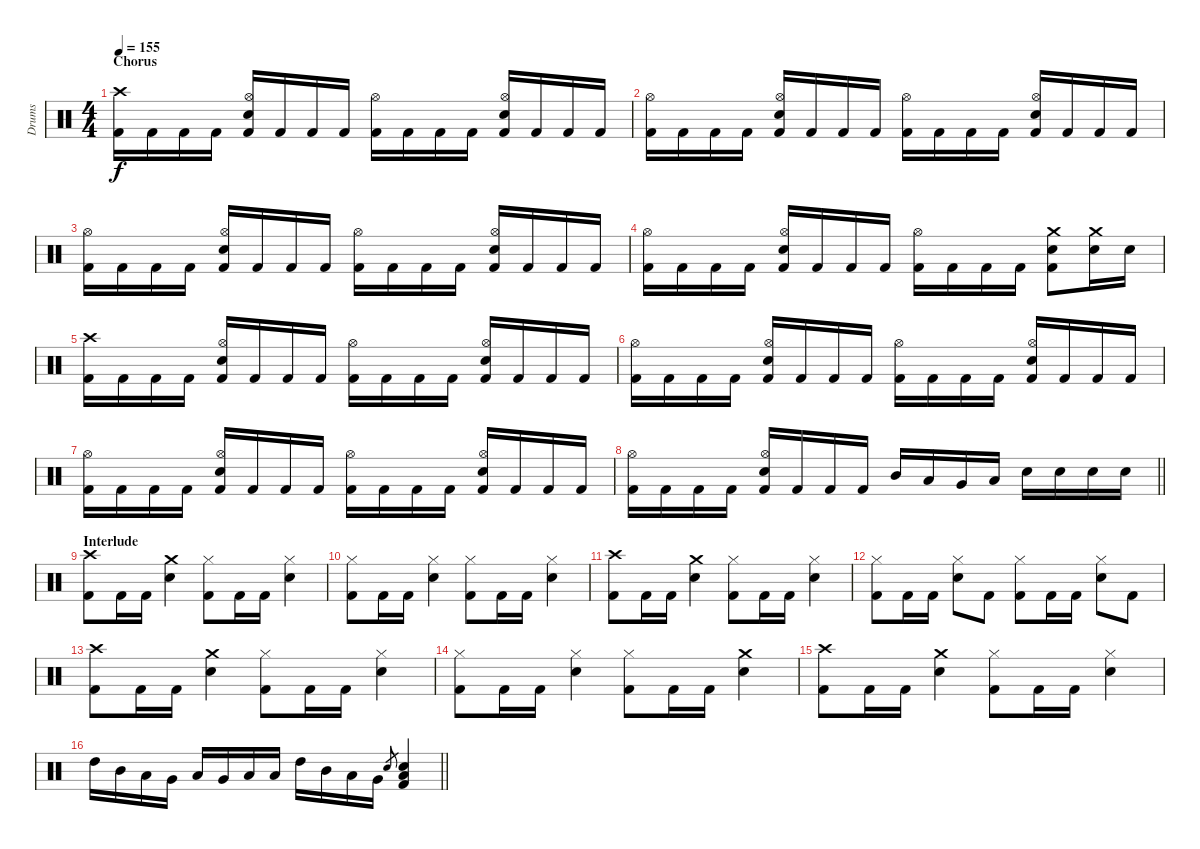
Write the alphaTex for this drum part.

\track ("Drums" "Drums") {instrument percussion}
\staff {score}
\articulation defaults
\ts (4 4)
\section ("" "Chorus")
\tempo 155
\clef neutral
\ks c
("Crash high (hit)" "Kick (hit) 2").16{dy f} "Kick (hit) 2".16 "Kick (hit) 2".16 "Kick (hit) 2".16 ("Hi-Hat (open)" "Snare (hit) 2" "Kick (hit) 2").16 "Kick (hit) 2".16 "Kick (hit) 2".16 "Kick (hit) 2".16 ("Hi-Hat (open)" "Kick (hit) 2").16 "Kick (hit) 2".16 "Kick (hit) 2".16 "Kick (hit) 2".16 ("Hi-Hat (open)" "Snare (hit) 2" "Kick (hit) 2").16 "Kick (hit) 2".16 "Kick (hit) 2".16 "Kick (hit) 2".16 |
("Hi-Hat (open)" "Kick (hit) 2").16 "Kick (hit) 2".16 "Kick (hit) 2".16 "Kick (hit) 2".16 ("Hi-Hat (open)" "Snare (hit) 2" "Kick (hit) 2").16 "Kick (hit) 2".16 "Kick (hit) 2".16 "Kick (hit) 2".16 ("Hi-Hat (open)" "Kick (hit) 2").16 "Kick (hit) 2".16 "Kick (hit) 2".16 "Kick (hit) 2".16 ("Hi-Hat (open)" "Snare (hit) 2" "Kick (hit) 2").16 "Kick (hit) 2".16 "Kick (hit) 2".16 "Kick (hit) 2".16 |
("Hi-Hat (open)" "Kick (hit) 2").16 "Kick (hit) 2".16 "Kick (hit) 2".16 "Kick (hit) 2".16 ("Hi-Hat (open)" "Snare (hit) 2" "Kick (hit) 2").16 "Kick (hit) 2".16 "Kick (hit) 2".16 "Kick (hit) 2".16 ("Hi-Hat (open)" "Kick (hit) 2").16 "Kick (hit) 2".16 "Kick (hit) 2".16 "Kick (hit) 2".16 ("Hi-Hat (open)" "Snare (hit) 2" "Kick (hit) 2").16 "Kick (hit) 2".16 "Kick (hit) 2".16 "Kick (hit) 2".16 |
("Hi-Hat (open)" "Kick (hit) 2").16 "Kick (hit) 2".16 "Kick (hit) 2".16 "Kick (hit) 2".16 ("Hi-Hat (open)" "Snare (hit) 2" "Kick (hit) 2").16 "Kick (hit) 2".16 "Kick (hit) 2".16 "Kick (hit) 2".16 ("Hi-Hat (open)" "Kick (hit) 2").16 "Kick (hit) 2".16 "Kick (hit) 2".16 "Kick (hit) 2".16 ("Crash medium (hit)" "Snare (hit) 2" "Kick (hit) 2").8 ("Crash medium (hit)" "Snare (hit) 2").16 "Snare (hit) 2".16 |
("Crash high (hit)" "Kick (hit) 2").16 "Kick (hit) 2".16 "Kick (hit) 2".16 "Kick (hit) 2".16 ("Hi-Hat (open)" "Snare (hit) 2" "Kick (hit) 2").16 "Kick (hit) 2".16 "Kick (hit) 2".16 "Kick (hit) 2".16 ("Hi-Hat (open)" "Kick (hit) 2").16 "Kick (hit) 2".16 "Kick (hit) 2".16 "Kick (hit) 2".16 ("Hi-Hat (open)" "Snare (hit) 2" "Kick (hit) 2").16 "Kick (hit) 2".16 "Kick (hit) 2".16 "Kick (hit) 2".16 |
("Hi-Hat (open)" "Kick (hit) 2").16 "Kick (hit) 2".16 "Kick (hit) 2".16 "Kick (hit) 2".16 ("Hi-Hat (open)" "Snare (hit) 2" "Kick (hit) 2").16 "Kick (hit) 2".16 "Kick (hit) 2".16 "Kick (hit) 2".16 ("Hi-Hat (open)" "Kick (hit) 2").16 "Kick (hit) 2".16 "Kick (hit) 2".16 "Kick (hit) 2".16 ("Hi-Hat (open)" "Snare (hit) 2" "Kick (hit) 2").16 "Kick (hit) 2".16 "Kick (hit) 2".16 "Kick (hit) 2".16 |
("Hi-Hat (open)" "Kick (hit) 2").16 "Kick (hit) 2".16 "Kick (hit) 2".16 "Kick (hit) 2".16 ("Hi-Hat (open)" "Snare (hit) 2" "Kick (hit) 2").16 "Kick (hit) 2".16 "Kick (hit) 2".16 "Kick (hit) 2".16 ("Hi-Hat (open)" "Kick (hit) 2").16 "Kick (hit) 2".16 "Kick (hit) 2".16 "Kick (hit) 2".16 ("Hi-Hat (open)" "Snare (hit) 2" "Kick (hit) 2").16 "Kick (hit) 2".16 "Kick (hit) 2".16 "Kick (hit) 2".16 |
\barLineRight lightlight
("Hi-Hat (open)" "Kick (hit) 2").16 "Kick (hit) 2".16 "Kick (hit) 2".16 "Kick (hit) 2".16 ("Hi-Hat (open)" "Snare (hit) 2" "Kick (hit) 2").16 "Kick (hit) 2".16 "Kick (hit) 2".16 "Kick (hit) 2".16 "Mid Tom (hit)".16 "Low Tom (hit)".16 "Very Low Tom (hit)".16 "Low Floor Tom (hit)".16 "Snare (hit) 2".16 "Snare (hit) 2".16 "Snare (hit) 2".16 "Snare (hit) 2".16 |
\section ("" "Interlude")
("Crash high (hit)" "Kick (hit) 2").8 "Kick (hit) 2".16 "Kick (hit) 2".16 ("Crash medium (hit)" "Snare (hit) 2").4 ("Hi-Hat (closed)" "Kick (hit) 2").8 "Kick (hit) 2".16 "Kick (hit) 2".16 ("Hi-Hat (closed)" "Snare (hit) 2").4 |
("Hi-Hat (closed)" "Kick (hit) 2").8 "Kick (hit) 2".16 "Kick (hit) 2".16 ("Hi-Hat (closed)" "Snare (hit) 2").4 ("Hi-Hat (closed)" "Kick (hit) 2").8 "Kick (hit) 2".16 "Kick (hit) 2".16 ("Hi-Hat (closed)" "Snare (hit) 2").4 |
("Crash high (hit)" "Kick (hit) 2").8 "Kick (hit) 2".16 "Kick (hit) 2".16 ("Crash medium (hit)" "Snare (hit) 2").4 ("Hi-Hat (closed)" "Kick (hit) 2").8 "Kick (hit) 2".16 "Kick (hit) 2".16 ("Hi-Hat (closed)" "Snare (hit) 2").4 |
("Hi-Hat (closed)" "Kick (hit) 2").8 "Kick (hit) 2".16 "Kick (hit) 2".16 ("Hi-Hat (closed)" "Snare (hit) 2").8 "Kick (hit) 2".8 ("Hi-Hat (closed)" "Kick (hit) 2").8 "Kick (hit) 2".16 "Kick (hit) 2".16 ("Hi-Hat (closed)" "Snare (hit) 2").8 "Kick (hit) 2".8 |
("Crash high (hit)" "Kick (hit) 2").8 "Kick (hit) 2".16 "Kick (hit) 2".16 ("Crash medium (hit)" "Snare (hit) 2").4 ("Hi-Hat (closed)" "Kick (hit) 2").8 "Kick (hit) 2".16 "Kick (hit) 2".16 ("Hi-Hat (closed)" "Snare (hit) 2").4 |
("Hi-Hat (closed)" "Kick (hit) 2").8 "Kick (hit) 2".16 "Kick (hit) 2".16 ("Hi-Hat (closed)" "Snare (hit) 2").4 ("Hi-Hat (closed)" "Kick (hit) 2").8 "Kick (hit) 2".16 "Kick (hit) 2".16 ("Crash medium (hit)" "Snare (hit) 2").4 |
("Crash high (hit)" "Kick (hit) 2").8 "Kick (hit) 2".16 "Kick (hit) 2".16 ("Crash medium (hit)" "Snare (hit) 2").4 ("Hi-Hat (closed)" "Kick (hit) 2").8 "Kick (hit) 2".16 "Kick (hit) 2".16 ("Hi-Hat (closed)" "Snare (hit) 2").4 |
\barLineRight lightlight "High Tom (hit)".16 "Mid Tom (hit)".16 "Low Tom (hit)".16 "Very Low Tom (hit)".16 "Low Tom (hit)".16 "Very Low Tom (hit)".16 "Low Floor Tom (hit)".16 "Low Tom (hit)".16 "High Tom (hit)".16 "Mid Tom (hit)".16 "Low Tom (hit)".16 "Very Low Tom (hit)".16 "Snare (hit) 2".8{gr}
("Snare (hit) 2" "Low Floor Tom (hit)" "Kick (hit) 2").4
